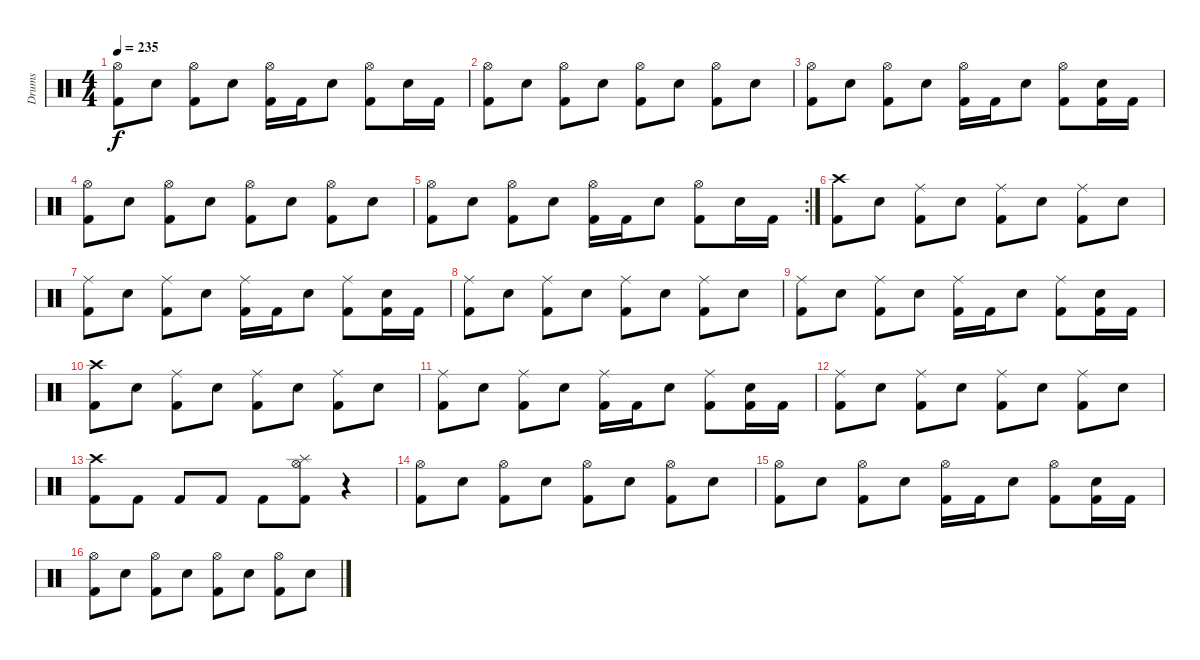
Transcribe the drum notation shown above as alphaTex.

\track ("Drums" "Drums") {instrument percussion}
\staff {score}
\articulation defaults
\ts (4 4)
\tempo 235
\clef neutral
\ks c
("Hi-Hat (open)" "Kick (hit) 2").8{dy f} "Snare (hit) 2".8 ("Hi-Hat (open)" "Kick (hit) 2").8 "Snare (hit) 2".8 ("Hi-Hat (open)" "Kick (hit) 2").16 "Kick (hit) 2".16 "Snare (hit) 2".8 ("Hi-Hat (open)" "Kick (hit) 2").8 "Snare (hit) 2".16 "Kick (hit) 2".16 |
("Hi-Hat (open)" "Kick (hit) 2").8 "Snare (hit) 2".8 ("Hi-Hat (open)" "Kick (hit) 2").8 "Snare (hit) 2".8 ("Hi-Hat (open)" "Kick (hit) 2").8 "Snare (hit) 2".8 ("Hi-Hat (open)" "Kick (hit) 2").8 "Snare (hit) 2".8 |
("Hi-Hat (open)" "Kick (hit) 2").8 "Snare (hit) 2".8 ("Hi-Hat (open)" "Kick (hit) 2").8 "Snare (hit) 2".8 ("Hi-Hat (open)" "Kick (hit) 2").16 "Kick (hit) 2".16 "Snare (hit) 2".8 ("Hi-Hat (open)" "Kick (hit) 2").8 ("Snare (hit) 2" "Kick (hit) 2").16 "Kick (hit) 2".16 |
("Hi-Hat (open)" "Kick (hit) 2").8 "Snare (hit) 2".8 ("Hi-Hat (open)" "Kick (hit) 2").8 "Snare (hit) 2".8 ("Hi-Hat (open)" "Kick (hit) 2").8 "Snare (hit) 2".8 ("Hi-Hat (open)" "Kick (hit) 2").8 "Snare (hit) 2".8 |
\rc 2
("Hi-Hat (open)" "Kick (hit) 2").8 "Snare (hit) 2".8 ("Hi-Hat (open)" "Kick (hit) 2").8 "Snare (hit) 2".8 ("Hi-Hat (open)" "Kick (hit) 2").16 "Kick (hit) 2".16 "Snare (hit) 2".8 ("Hi-Hat (open)" "Kick (hit) 2").8 "Snare (hit) 2".16 "Kick (hit) 2".16 |
("Crash high (hit)" "Kick (hit) 2").8 "Snare (hit) 2".8 ("Ride (middle)" "Kick (hit) 2").8 "Snare (hit) 2".8 ("Ride (middle)" "Kick (hit) 2").8 "Snare (hit) 2".8 ("Ride (middle)" "Kick (hit) 2").8 "Snare (hit) 2".8 |
("Ride (middle)" "Kick (hit) 2").8 "Snare (hit) 2".8 ("Ride (middle)" "Kick (hit) 2").8 "Snare (hit) 2".8 ("Ride (middle)" "Kick (hit) 2").16 "Kick (hit) 2".16 "Snare (hit) 2".8 ("Ride (middle)" "Kick (hit) 2").8 ("Snare (hit) 2" "Kick (hit) 2").16 "Kick (hit) 2".16 |
("Ride (middle)" "Kick (hit) 2").8 "Snare (hit) 2".8 ("Ride (middle)" "Kick (hit) 2").8 "Snare (hit) 2".8 ("Ride (middle)" "Kick (hit) 2").8 "Snare (hit) 2".8 ("Ride (middle)" "Kick (hit) 2").8 "Snare (hit) 2".8 |
("Ride (middle)" "Kick (hit) 2").8 "Snare (hit) 2".8 ("Ride (middle)" "Kick (hit) 2").8 "Snare (hit) 2".8 ("Ride (middle)" "Kick (hit) 2").16 "Kick (hit) 2".16 "Snare (hit) 2".8 ("Ride (middle)" "Kick (hit) 2").8 ("Snare (hit) 2" "Kick (hit) 2").16 "Kick (hit) 2".16 |
("Crash high (hit)" "Kick (hit) 2").8 "Snare (hit) 2".8 ("Ride (middle)" "Kick (hit) 2").8 "Snare (hit) 2".8 ("Ride (middle)" "Kick (hit) 2").8 "Snare (hit) 2".8 ("Ride (middle)" "Kick (hit) 2").8 "Snare (hit) 2".8 |
("Ride (middle)" "Kick (hit) 2").8 "Snare (hit) 2".8 ("Ride (middle)" "Kick (hit) 2").8 "Snare (hit) 2".8 ("Ride (middle)" "Kick (hit) 2").16 "Kick (hit) 2".16 "Snare (hit) 2".8 ("Ride (middle)" "Kick (hit) 2").8 ("Snare (hit) 2" "Kick (hit) 2").16 "Kick (hit) 2".16 |
("Ride (middle)" "Kick (hit) 2").8 "Snare (hit) 2".8 ("Ride (middle)" "Kick (hit) 2").8 "Snare (hit) 2".8 ("Ride (middle)" "Kick (hit) 2").8 "Snare (hit) 2".8 ("Ride (middle)" "Kick (hit) 2").8 "Snare (hit) 2".8 |
("Crash high (hit)" "Kick (hit) 2").8 "Kick (hit) 2".8 "Kick (hit) 2".8 "Kick (hit) 2".8 "Kick (hit) 2".8 ("Hi-Hat (open)" "Splash (hit)" "Kick (hit) 2").8 r.4 |
("Hi-Hat (open)" "Kick (hit) 2").8 "Snare (hit) 2".8 ("Hi-Hat (open)" "Kick (hit) 2").8 "Snare (hit) 2".8 ("Hi-Hat (open)" "Kick (hit) 2").8 "Snare (hit) 2".8 ("Hi-Hat (open)" "Kick (hit) 2").8 "Snare (hit) 2".8 |
("Hi-Hat (open)" "Kick (hit) 2").8 "Snare (hit) 2".8 ("Hi-Hat (open)" "Kick (hit) 2").8 "Snare (hit) 2".8 ("Hi-Hat (open)" "Kick (hit) 2").16 "Kick (hit) 2".16 "Snare (hit) 2".8 ("Hi-Hat (open)" "Kick (hit) 2").8 ("Snare (hit) 2" "Kick (hit) 2").16 "Kick (hit) 2".16 |
("Hi-Hat (open)" "Kick (hit) 2").8 "Snare (hit) 2".8 ("Hi-Hat (open)" "Kick (hit) 2").8 "Snare (hit) 2".8 ("Hi-Hat (open)" "Kick (hit) 2").8 "Snare (hit) 2".8 ("Hi-Hat (open)" "Kick (hit) 2").8 "Snare (hit) 2".8
